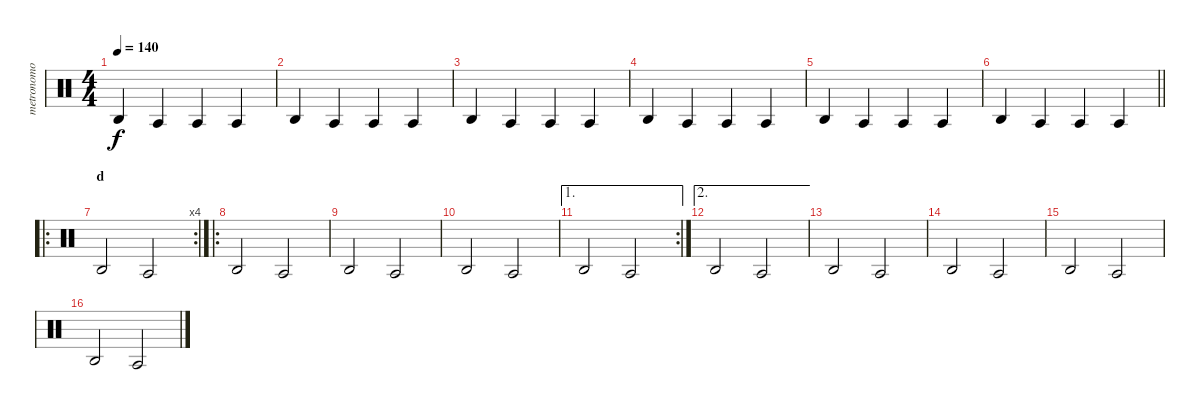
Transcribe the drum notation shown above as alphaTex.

\track ("metronomo" "metronomo") {mute instrument percussion}
\staff {score}
\articulation defaults
\ts (4 4)
\tempo 140
\clef neutral
\ks c "Agogo high (hit)".4{dy f} "Agogo tow (hit)".4 "Agogo tow (hit)".4 "Agogo tow (hit)".4
|
"Agogo high (hit)".4 "Agogo tow (hit)".4 "Agogo tow (hit)".4 "Agogo tow (hit)".4 |
"Agogo high (hit)".4 "Agogo tow (hit)".4 "Agogo tow (hit)".4 "Agogo tow (hit)".4 |
"Agogo high (hit)".4 "Agogo tow (hit)".4 "Agogo tow (hit)".4 "Agogo tow (hit)".4 |
"Agogo high (hit)".4 "Agogo tow (hit)".4 "Agogo tow (hit)".4 "Agogo tow (hit)".4 |
\barLineRight lightlight "Agogo high (hit)".4 "Agogo tow (hit)".4 "Agogo tow (hit)".4 "Agogo tow (hit)".4
|
\ro
\rc 4
\section ("" "d")
"Agogo high (hit)".2 "Agogo tow (hit)".2 |
\ro "Agogo high (hit)".2 "Agogo tow (hit)".2
|
"Agogo high (hit)".2 "Agogo tow (hit)".2 |
"Agogo high (hit)".2 "Agogo tow (hit)".2 |
\ae 1
\rc 2 "Agogo high (hit)".2 "Agogo tow (hit)".2
|
\ae 2 "Agogo high (hit)".2 "Agogo tow (hit)".2
|
"Agogo high (hit)".2 "Agogo tow (hit)".2 |
"Agogo high (hit)".2 "Agogo tow (hit)".2 |
"Agogo high (hit)".2 "Agogo tow (hit)".2 |
"Agogo high (hit)".2 "Agogo tow (hit)".2
